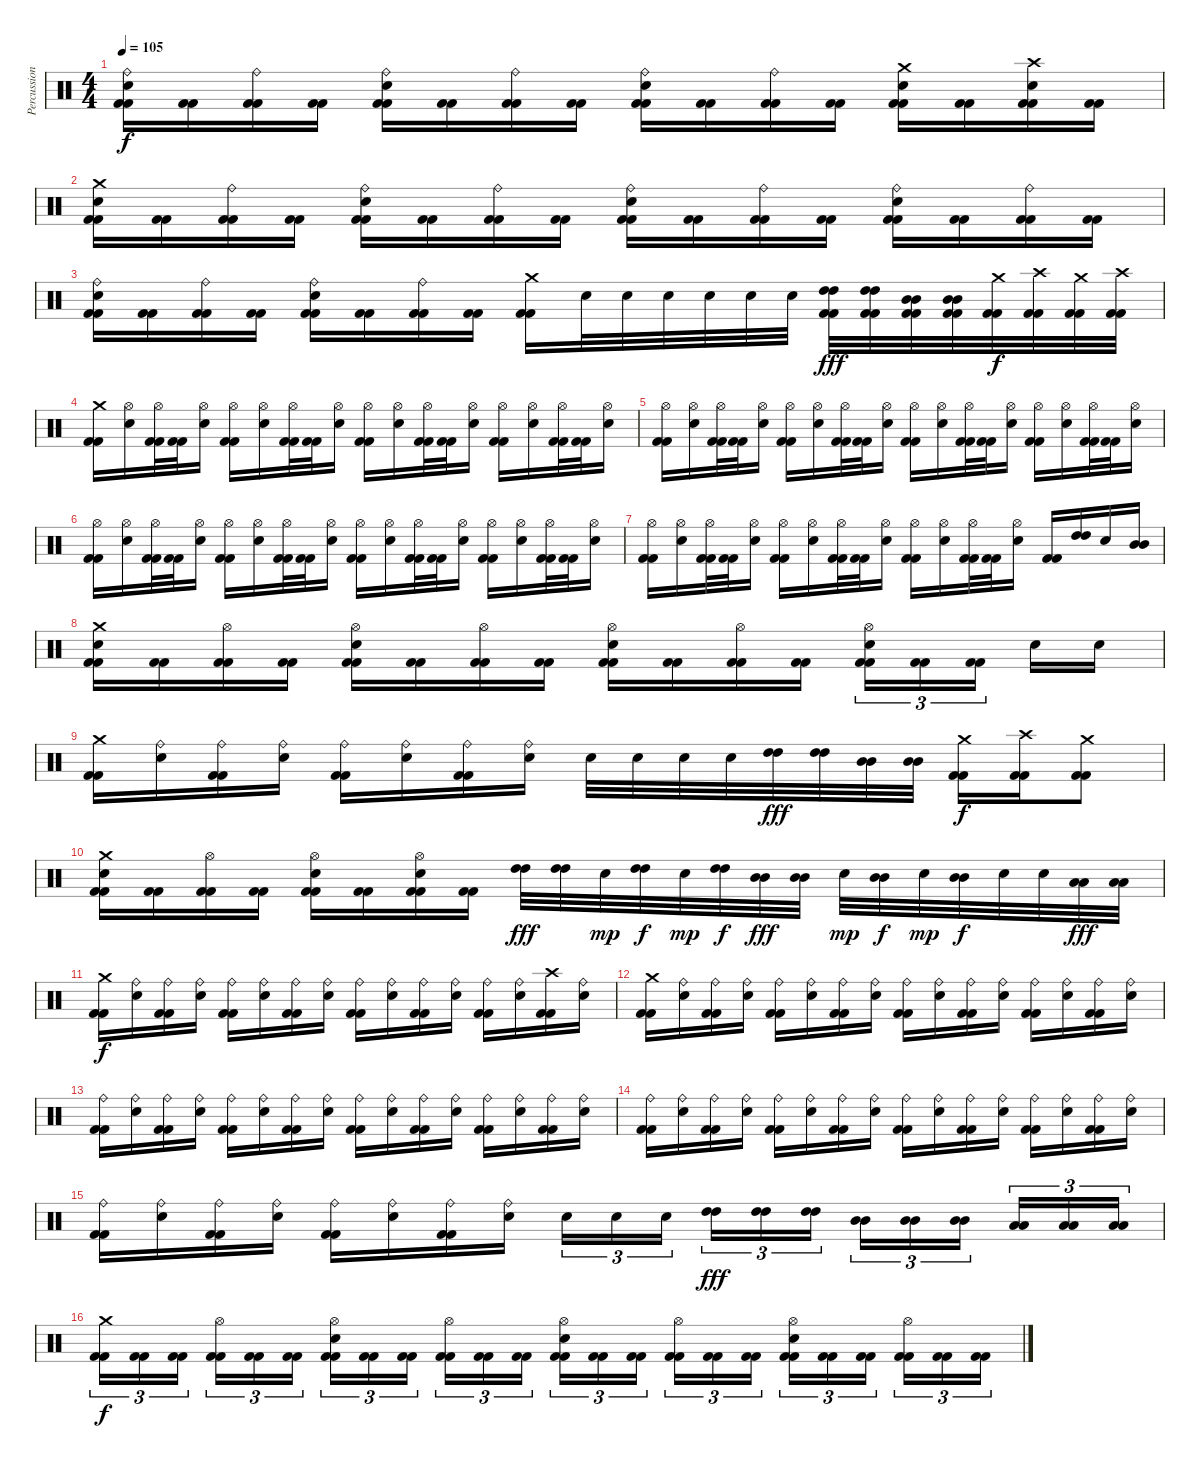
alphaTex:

\track ("Percussion" "Percussion") {instrument percussion}
\staff {score}
\articulation defaults
\ts (4 4)
\tempo 105
\clef neutral
\ks c
("Kick (hit) 2" "Kick (hit) 2" "Ride (bell)" "Electric Snare (hit)").16{dy f} ("Kick (hit) 2" "Kick (hit) 2").16 ("Kick (hit) 2" "Kick (hit) 2" "Ride (bell)").16 ("Kick (hit) 2" "Kick (hit) 2").16 ("Kick (hit) 2" "Kick (hit) 2" "Ride (bell)" "Electric Snare (hit)").16 ("Kick (hit) 2" "Kick (hit) 2").16 ("Kick (hit) 2" "Kick (hit) 2" "Ride (bell)").16 ("Kick (hit) 2" "Kick (hit) 2").16 ("Kick (hit) 2" "Kick (hit) 2" "Ride (bell)" "Electric Snare (hit)").16 ("Kick (hit) 2" "Kick (hit) 2").16 ("Kick (hit) 2" "Kick (hit) 2" "Ride (bell)").16 ("Kick (hit) 2" "Kick (hit) 2").16 ("Kick (hit) 2" "Kick (hit) 2" "Crash medium (hit)" "Electric Snare (hit)").16 ("Kick (hit) 2" "Kick (hit) 2").16 ("Kick (hit) 2" "Kick (hit) 2" "Crash high (hit)" "Electric Snare (hit)").16 ("Kick (hit) 2" "Kick (hit) 2").16 |
("Kick (hit) 2" "Kick (hit) 2" "Crash medium (hit)" "Electric Snare (hit)").16 ("Kick (hit) 2" "Kick (hit) 2").16 ("Kick (hit) 2" "Kick (hit) 2" "Ride (bell)").16 ("Kick (hit) 2" "Kick (hit) 2").16 ("Kick (hit) 2" "Kick (hit) 2" "Ride (bell)" "Electric Snare (hit)").16 ("Kick (hit) 2" "Kick (hit) 2").16 ("Kick (hit) 2" "Kick (hit) 2" "Ride (bell)").16 ("Kick (hit) 2" "Kick (hit) 2").16 ("Kick (hit) 2" "Kick (hit) 2" "Ride (bell)" "Electric Snare (hit)").16 ("Kick (hit) 2" "Kick (hit) 2").16 ("Kick (hit) 2" "Kick (hit) 2" "Ride (bell)").16 ("Kick (hit) 2" "Kick (hit) 2").16 ("Kick (hit) 2" "Kick (hit) 2" "Ride (bell)" "Electric Snare (hit)").16 ("Kick (hit) 2" "Kick (hit) 2").16 ("Kick (hit) 2" "Kick (hit) 2" "Ride (bell)").16 ("Kick (hit) 2" "Kick (hit) 2").16 |
("Kick (hit) 2" "Kick (hit) 2" "Ride (bell)" "Electric Snare (hit)").16 ("Kick (hit) 2" "Kick (hit) 2").16 ("Kick (hit) 2" "Kick (hit) 2" "Ride (bell)").16 ("Kick (hit) 2" "Kick (hit) 2").16 ("Kick (hit) 2" "Kick (hit) 2" "Ride (bell)" "Electric Snare (hit)").16 ("Kick (hit) 2" "Kick (hit) 2").16 ("Kick (hit) 2" "Kick (hit) 2" "Ride (bell)").16 ("Kick (hit) 2" "Kick (hit) 2").16 ("Kick (hit) 2" "Kick (hit) 2" "Crash medium (hit)").16 "Electric Snare (hit)".32 "Electric Snare (hit)".32 "Electric Snare (hit)".32 "Electric Snare (hit)".32 "Electric Snare (hit)".32 "Electric Snare (hit)".32 ("Kick (hit) 2" "Kick (hit) 2" "High Tom (hit)" "High Tom (hit)").32{dy fff} ("Kick (hit) 2" "Kick (hit) 2" "High Tom (hit)" "High Tom (hit)").32 ("Kick (hit) 2" "Kick (hit) 2" "Mid Tom (hit)" "Mid Tom (hit)").32 ("Kick (hit) 2" "Kick (hit) 2" "Mid Tom (hit)" "Mid Tom (hit)").32 ("Kick (hit) 2" "Kick (hit) 2" "Crash medium (hit)").32{dy f} ("Kick (hit) 2" "Kick (hit) 2" "Crash high (hit)").32 ("Kick (hit) 2" "Kick (hit) 2" "Crash medium (hit)").32 ("Kick (hit) 2" "Kick (hit) 2" "Crash high (hit)").32 |
("Kick (hit) 2" "Kick (hit) 2" "Crash medium (hit)").16 ("Hi-Hat (open)" "Electric Snare (hit)").16 ("Kick (hit) 2" "Kick (hit) 2" "Hi-Hat (open)").32 ("Kick (hit) 2" "Kick (hit) 2").32 ("Hi-Hat (open)" "Electric Snare (hit)").16 ("Kick (hit) 2" "Kick (hit) 2" "Hi-Hat (open)").16 ("Hi-Hat (open)" "Electric Snare (hit)").16 ("Kick (hit) 2" "Kick (hit) 2" "Hi-Hat (open)").32 ("Kick (hit) 2" "Kick (hit) 2").32 ("Hi-Hat (open)" "Electric Snare (hit)").16 ("Kick (hit) 2" "Kick (hit) 2" "Hi-Hat (open)").16 ("Hi-Hat (open)" "Electric Snare (hit)").16 ("Kick (hit) 2" "Kick (hit) 2" "Hi-Hat (open)").32 ("Kick (hit) 2" "Kick (hit) 2").32 ("Hi-Hat (open)" "Electric Snare (hit)").16 ("Kick (hit) 2" "Kick (hit) 2" "Hi-Hat (open)").16 ("Hi-Hat (open)" "Electric Snare (hit)").16 ("Kick (hit) 2" "Kick (hit) 2" "Hi-Hat (open)").32 ("Kick (hit) 2" "Kick (hit) 2").32 ("Hi-Hat (open)" "Electric Snare (hit)").16 |
("Kick (hit) 2" "Kick (hit) 2" "Hi-Hat (open)").16 ("Hi-Hat (open)" "Electric Snare (hit)").16 ("Kick (hit) 2" "Kick (hit) 2" "Hi-Hat (open)").32 ("Kick (hit) 2" "Kick (hit) 2").32 ("Hi-Hat (open)" "Electric Snare (hit)").16 ("Kick (hit) 2" "Kick (hit) 2" "Hi-Hat (open)").16 ("Hi-Hat (open)" "Electric Snare (hit)").16 ("Kick (hit) 2" "Kick (hit) 2" "Hi-Hat (open)").32 ("Kick (hit) 2" "Kick (hit) 2").32 ("Hi-Hat (open)" "Electric Snare (hit)").16 ("Kick (hit) 2" "Kick (hit) 2" "Hi-Hat (open)").16 ("Hi-Hat (open)" "Electric Snare (hit)").16 ("Kick (hit) 2" "Kick (hit) 2" "Hi-Hat (open)").32 ("Kick (hit) 2" "Kick (hit) 2").32 ("Hi-Hat (open)" "Electric Snare (hit)").16 ("Kick (hit) 2" "Kick (hit) 2" "Hi-Hat (open)").16 ("Hi-Hat (open)" "Electric Snare (hit)").16 ("Kick (hit) 2" "Kick (hit) 2" "Hi-Hat (open)").32 ("Kick (hit) 2" "Kick (hit) 2").32 ("Hi-Hat (open)" "Electric Snare (hit)").16 |
("Kick (hit) 2" "Kick (hit) 2" "Hi-Hat (open)").16 ("Hi-Hat (open)" "Electric Snare (hit)").16 ("Kick (hit) 2" "Kick (hit) 2" "Hi-Hat (open)").32 ("Kick (hit) 2" "Kick (hit) 2").32 ("Hi-Hat (open)" "Electric Snare (hit)").16 ("Kick (hit) 2" "Kick (hit) 2" "Hi-Hat (open)").16 ("Hi-Hat (open)" "Electric Snare (hit)").16 ("Kick (hit) 2" "Kick (hit) 2" "Hi-Hat (open)").32 ("Kick (hit) 2" "Kick (hit) 2").32 ("Hi-Hat (open)" "Electric Snare (hit)").16 ("Kick (hit) 2" "Kick (hit) 2" "Hi-Hat (open)").16 ("Hi-Hat (open)" "Electric Snare (hit)").16 ("Kick (hit) 2" "Kick (hit) 2" "Hi-Hat (open)").32 ("Kick (hit) 2" "Kick (hit) 2").32 ("Hi-Hat (open)" "Electric Snare (hit)").16 ("Kick (hit) 2" "Kick (hit) 2" "Hi-Hat (open)").16 ("Hi-Hat (open)" "Electric Snare (hit)").16 ("Kick (hit) 2" "Kick (hit) 2" "Hi-Hat (open)").32 ("Kick (hit) 2" "Kick (hit) 2").32 ("Hi-Hat (open)" "Electric Snare (hit)").16 |
("Kick (hit) 2" "Kick (hit) 2" "Hi-Hat (open)").16 ("Hi-Hat (open)" "Electric Snare (hit)").16 ("Kick (hit) 2" "Kick (hit) 2" "Hi-Hat (open)").32 ("Kick (hit) 2" "Kick (hit) 2").32 ("Hi-Hat (open)" "Electric Snare (hit)").16 ("Kick (hit) 2" "Kick (hit) 2" "Hi-Hat (open)").16 ("Hi-Hat (open)" "Electric Snare (hit)").16 ("Kick (hit) 2" "Kick (hit) 2" "Hi-Hat (open)").32 ("Kick (hit) 2" "Kick (hit) 2").32 ("Hi-Hat (open)" "Electric Snare (hit)").16 ("Kick (hit) 2" "Kick (hit) 2" "Hi-Hat (open)").16 ("Hi-Hat (open)" "Electric Snare (hit)").16 ("Kick (hit) 2" "Kick (hit) 2" "Hi-Hat (open)").32 ("Kick (hit) 2" "Kick (hit) 2").32 ("Hi-Hat (open)" "Electric Snare (hit)").16 ("Kick (hit) 2" "Kick (hit) 2").16 ("High Tom (hit)" "High Tom (hit)").16 "Electric Snare (hit)".16 ("Mid Tom (hit)" "Mid Tom (hit)").16 |
("Electric Snare (hit)" "Crash medium (hit)" "Kick (hit) 2" "Kick (hit) 2").16 ("Kick (hit) 2" "Kick (hit) 2").16 ("Hi-Hat (open)" "Kick (hit) 2" "Kick (hit) 2").16 ("Kick (hit) 2" "Kick (hit) 2").16 ("Electric Snare (hit)" "Hi-Hat (open)" "Kick (hit) 2" "Kick (hit) 2").16 ("Kick (hit) 2" "Kick (hit) 2").16 ("Hi-Hat (open)" "Kick (hit) 2" "Kick (hit) 2").16 ("Kick (hit) 2" "Kick (hit) 2").16 ("Electric Snare (hit)" "Hi-Hat (open)" "Kick (hit) 2" "Kick (hit) 2").16 ("Kick (hit) 2" "Kick (hit) 2").16 ("Hi-Hat (open)" "Kick (hit) 2" "Kick (hit) 2").16 ("Kick (hit) 2" "Kick (hit) 2").16 ("Electric Snare (hit)" "Hi-Hat (open)" "Kick (hit) 2" "Kick (hit) 2").16{tu (3 2)} ("Kick (hit) 2" "Kick (hit) 2").16{tu (3 2)} ("Kick (hit) 2" "Kick (hit) 2").16{tu (3 2)} "Electric Snare (hit)".16 "Electric Snare (hit)".16 |
("Kick (hit) 2" "Kick (hit) 2" "Crash medium (hit)").16 ("Ride (bell)" "Electric Snare (hit)").16 ("Kick (hit) 2" "Kick (hit) 2" "Ride (bell)").16 ("Ride (bell)" "Electric Snare (hit)").16 ("Kick (hit) 2" "Kick (hit) 2" "Ride (bell)").16 ("Ride (bell)" "Electric Snare (hit)").16 ("Kick (hit) 2" "Kick (hit) 2" "Ride (bell)").16 ("Ride (bell)" "Electric Snare (hit)").16 "Electric Snare (hit)".32 "Electric Snare (hit)".32 "Electric Snare (hit)".32 "Electric Snare (hit)".32 ("High Tom (hit)" "High Tom (hit)").32{dy fff} ("High Tom (hit)" "High Tom (hit)").32 ("Mid Tom (hit)" "Mid Tom (hit)").32 ("Mid Tom (hit)" "Mid Tom (hit)").32 ("Kick (hit) 2" "Kick (hit) 2" "Crash medium (hit)").16{dy f} ("Kick (hit) 2" "Kick (hit) 2" "Crash high (hit)").16 ("Kick (hit) 2" "Kick (hit) 2" "Crash medium (hit)").8 |
("Electric Snare (hit)" "Crash medium (hit)" "Kick (hit) 2" "Kick (hit) 2").16 ("Kick (hit) 2" "Kick (hit) 2").16 ("Hi-Hat (open)" "Kick (hit) 2" "Kick (hit) 2").16 ("Kick (hit) 2" "Kick (hit) 2").16 ("Electric Snare (hit)" "Hi-Hat (open)" "Kick (hit) 2" "Kick (hit) 2").16 ("Kick (hit) 2" "Kick (hit) 2").16 ("Electric Snare (hit)" "Hi-Hat (open)" "Kick (hit) 2" "Kick (hit) 2").16 ("Kick (hit) 2" "Kick (hit) 2").16 ("High Tom (hit)" "High Tom (hit)").32{dy fff} ("High Tom (hit)" "High Tom (hit)").32 "Electric Snare (hit)".32{dy mp} ("High Tom (hit)" "High Tom (hit)").32{dy f} "Electric Snare (hit)".32{dy mp} ("High Tom (hit)" "High Tom (hit)").32{dy f} ("Mid Tom (hit)" "Mid Tom (hit)").32{dy fff} ("Mid Tom (hit)" "Mid Tom (hit)").32 "Electric Snare (hit)".32{dy mp} ("Mid Tom (hit)" "Mid Tom (hit)").32{dy f} "Electric Snare (hit)".32{dy mp} ("Mid Tom (hit)" "Mid Tom (hit)").32{dy f} "Electric Snare (hit)".32 "Electric Snare (hit)".32 ("Low Tom (hit)" "Low Tom (hit)").32{dy fff} ("Low Tom (hit)" "Low Tom (hit)").32 |
("Kick (hit) 2" "Kick (hit) 2" "Crash medium (hit)").16{dy f} ("Ride (bell)" "Electric Snare (hit)").16 ("Kick (hit) 2" "Kick (hit) 2" "Ride (bell)").16 ("Ride (bell)" "Electric Snare (hit)").16 ("Kick (hit) 2" "Kick (hit) 2" "Ride (bell)").16 ("Ride (bell)" "Electric Snare (hit)").16 ("Kick (hit) 2" "Kick (hit) 2" "Ride (bell)").16 ("Ride (bell)" "Electric Snare (hit)").16 ("Kick (hit) 2" "Kick (hit) 2" "Ride (bell)").16 ("Ride (bell)" "Electric Snare (hit)").16 ("Kick (hit) 2" "Kick (hit) 2" "Ride (bell)").16 ("Ride (bell)" "Electric Snare (hit)").16 ("Kick (hit) 2" "Kick (hit) 2" "Ride (bell)").16 ("Ride (bell)" "Electric Snare (hit)").16 ("Kick (hit) 2" "Kick (hit) 2" "Crash high (hit)").16 ("Ride (bell)" "Electric Snare (hit)").16 |
("Kick (hit) 2" "Kick (hit) 2" "Crash medium (hit)").16 ("Ride (bell)" "Electric Snare (hit)").16 ("Kick (hit) 2" "Kick (hit) 2" "Ride (bell)").16 ("Ride (bell)" "Electric Snare (hit)").16 ("Kick (hit) 2" "Kick (hit) 2" "Ride (bell)").16 ("Ride (bell)" "Electric Snare (hit)").16 ("Kick (hit) 2" "Kick (hit) 2" "Ride (bell)").16 ("Ride (bell)" "Electric Snare (hit)").16 ("Kick (hit) 2" "Kick (hit) 2" "Ride (bell)").16 ("Ride (bell)" "Electric Snare (hit)").16 ("Kick (hit) 2" "Kick (hit) 2" "Ride (bell)").16 ("Ride (bell)" "Electric Snare (hit)").16 ("Kick (hit) 2" "Kick (hit) 2" "Ride (bell)").16 ("Ride (bell)" "Electric Snare (hit)").16 ("Kick (hit) 2" "Kick (hit) 2" "Ride (bell)").16 ("Ride (bell)" "Electric Snare (hit)").16 |
("Kick (hit) 2" "Kick (hit) 2" "Ride (bell)").16 ("Ride (bell)" "Electric Snare (hit)").16 ("Kick (hit) 2" "Kick (hit) 2" "Ride (bell)").16 ("Ride (bell)" "Electric Snare (hit)").16 ("Kick (hit) 2" "Kick (hit) 2" "Ride (bell)").16 ("Ride (bell)" "Electric Snare (hit)").16 ("Kick (hit) 2" "Kick (hit) 2" "Ride (bell)").16 ("Ride (bell)" "Electric Snare (hit)").16 ("Kick (hit) 2" "Kick (hit) 2" "Ride (bell)").16 ("Ride (bell)" "Electric Snare (hit)").16 ("Kick (hit) 2" "Kick (hit) 2" "Ride (bell)").16 ("Ride (bell)" "Electric Snare (hit)").16 ("Kick (hit) 2" "Kick (hit) 2" "Ride (bell)").16 ("Ride (bell)" "Electric Snare (hit)").16 ("Kick (hit) 2" "Kick (hit) 2" "Ride (bell)").16 ("Ride (bell)" "Electric Snare (hit)").16 |
("Kick (hit) 2" "Kick (hit) 2" "Ride (bell)").16 ("Ride (bell)" "Electric Snare (hit)").16 ("Kick (hit) 2" "Kick (hit) 2" "Ride (bell)").16 ("Ride (bell)" "Electric Snare (hit)").16 ("Kick (hit) 2" "Kick (hit) 2" "Ride (bell)").16 ("Ride (bell)" "Electric Snare (hit)").16 ("Kick (hit) 2" "Kick (hit) 2" "Ride (bell)").16 ("Ride (bell)" "Electric Snare (hit)").16 ("Kick (hit) 2" "Kick (hit) 2" "Ride (bell)").16 ("Ride (bell)" "Electric Snare (hit)").16 ("Kick (hit) 2" "Kick (hit) 2" "Ride (bell)").16 ("Ride (bell)" "Electric Snare (hit)").16 ("Kick (hit) 2" "Kick (hit) 2" "Ride (bell)").16 ("Ride (bell)" "Electric Snare (hit)").16 ("Kick (hit) 2" "Kick (hit) 2" "Ride (bell)").16 ("Ride (bell)" "Electric Snare (hit)").16 |
("Kick (hit) 2" "Kick (hit) 2" "Ride (bell)").16 ("Ride (bell)" "Electric Snare (hit)").16 ("Kick (hit) 2" "Kick (hit) 2" "Ride (bell)").16 ("Ride (bell)" "Electric Snare (hit)").16 ("Kick (hit) 2" "Kick (hit) 2" "Ride (bell)").16 ("Ride (bell)" "Electric Snare (hit)").16 ("Kick (hit) 2" "Kick (hit) 2" "Ride (bell)").16 ("Ride (bell)" "Electric Snare (hit)").16 "Electric Snare (hit)".16{tu (3 2)} "Electric Snare (hit)".16{tu (3 2)} "Electric Snare (hit)".16{tu (3 2)} ("High Tom (hit)" "High Tom (hit)").16{tu (3 2) dy fff} ("High Tom (hit)" "High Tom (hit)").16{tu (3 2)} ("High Tom (hit)" "High Tom (hit)").16{tu (3 2)} ("Mid Tom (hit)" "Mid Tom (hit)").16{tu (3 2)} ("Mid Tom (hit)" "Mid Tom (hit)").16{tu (3 2)} ("Mid Tom (hit)" "Mid Tom (hit)").16{tu (3 2)} ("Low Tom (hit)" "Low Tom (hit)").16{tu (3 2)} ("Low Tom (hit)" "Low Tom (hit)").16{tu (3 2)} ("Low Tom (hit)" "Low Tom (hit)").16{tu (3 2)} |
("Kick (hit) 2" "Kick (hit) 2" "Crash medium (hit)").16{tu (3 2) dy f} ("Kick (hit) 2" "Kick (hit) 2").16{tu (3 2)} ("Kick (hit) 2" "Kick (hit) 2").16{tu (3 2)} ("Kick (hit) 2" "Kick (hit) 2" "Hi-Hat (open)").16{tu (3 2)} ("Kick (hit) 2" "Kick (hit) 2").16{tu (3 2)} ("Kick (hit) 2" "Kick (hit) 2").16{tu (3 2)} ("Kick (hit) 2" "Kick (hit) 2" "Hi-Hat (open)" "Electric Snare (hit)").16{tu (3 2)} ("Kick (hit) 2" "Kick (hit) 2").16{tu (3 2)} ("Kick (hit) 2" "Kick (hit) 2").16{tu (3 2)} ("Kick (hit) 2" "Kick (hit) 2" "Hi-Hat (open)").16{tu (3 2)} ("Kick (hit) 2" "Kick (hit) 2").16{tu (3 2)} ("Kick (hit) 2" "Kick (hit) 2").16{tu (3 2)} ("Kick (hit) 2" "Kick (hit) 2" "Hi-Hat (open)" "Electric Snare (hit)").16{tu (3 2)} ("Kick (hit) 2" "Kick (hit) 2").16{tu (3 2)} ("Kick (hit) 2" "Kick (hit) 2").16{tu (3 2)} ("Kick (hit) 2" "Kick (hit) 2" "Hi-Hat (open)").16{tu (3 2)} ("Kick (hit) 2" "Kick (hit) 2").16{tu (3 2)} ("Kick (hit) 2" "Kick (hit) 2").16{tu (3 2)} ("Kick (hit) 2" "Kick (hit) 2" "Hi-Hat (open)" "Electric Snare (hit)").16{tu (3 2)} ("Kick (hit) 2" "Kick (hit) 2").16{tu (3 2)} ("Kick (hit) 2" "Kick (hit) 2").16{tu (3 2)} ("Kick (hit) 2" "Kick (hit) 2" "Hi-Hat (open)").16{tu (3 2)} ("Kick (hit) 2" "Kick (hit) 2").16{tu (3 2)} ("Kick (hit) 2" "Kick (hit) 2").16{tu (3 2)}
